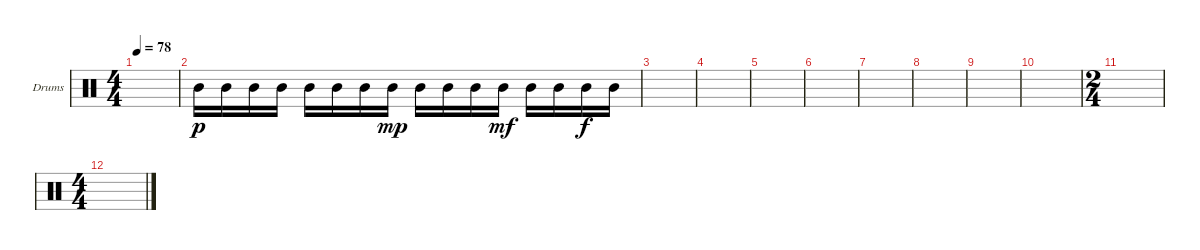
\defaultSystemsLayout 4
\bracketExtendMode groupsimilarinstruments
\firstSystemTrackNameOrientation horizontal
\otherSystemsTrackNameOrientation horizontal
\track ("Drumkit" "Drums") {instrument percussion}
\staff {score}
\articulation defaults
\ts (4 4)
\tempo 78
\clef neutral
\scale
0.333333
\ks c
|
\scale
0.333333 "Mid Tom (hit)".16{dy p} "Mid Tom (hit)".16 "Mid Tom (hit)".16 "Mid Tom (hit)".16 "Mid Tom (hit)".16 "Mid Tom (hit)".16 "Mid Tom (hit)".16 "Mid Tom (hit)".16{dy mp} "Mid Tom (hit)".16 "Mid Tom (hit)".16 "Mid Tom (hit)".16 "Mid Tom (hit)".16{dy mf} "Mid Tom (hit)".16 "Mid Tom (hit)".16 "Mid Tom (hit)".16{dy f} "Mid Tom (hit)".16 |
\scale
0.333333 |
\scale
0.333333 |
\scale
0.333333 |
\scale
0.333333 |
\scale
0.333333 |
\scale
0.333333 |
\scale
0.333333 |
\scale
0.333333 |
\ts (2 4)
\scale
0.333333 |
\ts (4 4)
\scale
0.333333 |
\scale
0.333333 |
\scale
0.333333 |
\scale
0.333333 |
\scale
0.333333
